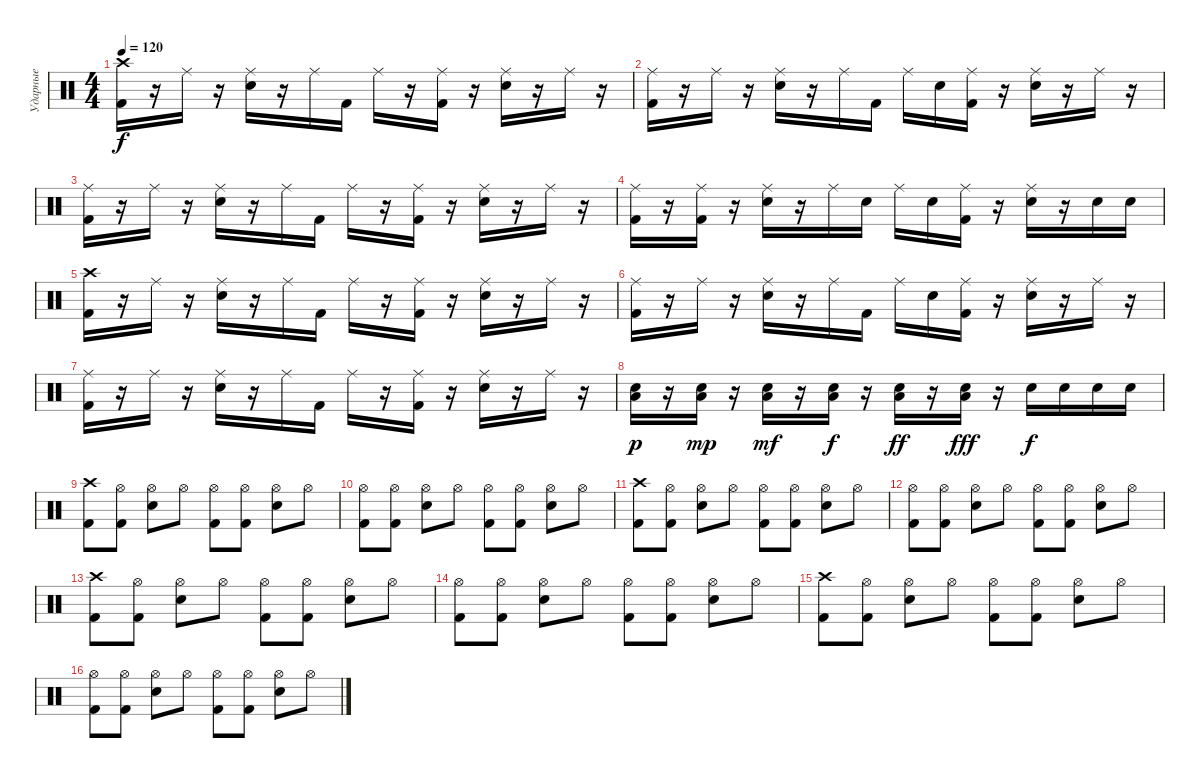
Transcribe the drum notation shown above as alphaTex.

\track ("Ударные" "Ударные") {instrument percussion}
\staff {score}
\articulation defaults
\ts (4 4)
\tempo 120
\clef neutral
\ks c
("Crash high (hit)" "Kick (hit) 2").16{dy f} r.16 "Ride (middle)".16 r.16 ("Ride (middle)" "Electric Snare (hit)").16 r.16 "Ride (middle)".16 "Kick (hit) 2".16 "Ride (middle)".16 r.16 ("Ride (middle)" "Kick (hit) 2").16 r.16 ("Ride (middle)" "Electric Snare (hit)").16 r.16 "Ride (middle)".16 r.16 |
("Ride (middle)" "Kick (hit) 2").16 r.16 "Ride (middle)".16 r.16 ("Ride (middle)" "Electric Snare (hit)").16 r.16 "Ride (middle)".16 "Kick (hit) 2".16 "Ride (middle)".16 "Electric Snare (hit)".16 ("Ride (middle)" "Kick (hit) 2").16 r.16 ("Ride (middle)" "Electric Snare (hit)").16 r.16 "Ride (middle)".16 r.16 |
("Ride (middle)" "Kick (hit) 2").16 r.16 "Ride (middle)".16 r.16 ("Ride (middle)" "Electric Snare (hit)").16 r.16 "Ride (middle)".16 "Kick (hit) 2".16 "Ride (middle)".16 r.16 ("Ride (middle)" "Kick (hit) 2").16 r.16 ("Ride (middle)" "Electric Snare (hit)").16 r.16 "Ride (middle)".16 r.16 |
("Ride (middle)" "Kick (hit) 2").16 r.16 ("Ride (middle)" "Kick (hit) 2").16 r.16 ("Ride (middle)" "Electric Snare (hit)").16 r.16 "Ride (middle)".16 "Electric Snare (hit)".16 "Ride (middle)".16 "Electric Snare (hit)".16 ("Ride (middle)" "Kick (hit) 2").16 r.16 ("Ride (middle)" "Electric Snare (hit)").16 r.16 "Electric Snare (hit)".16 "Electric Snare (hit)".16 |
("Crash high (hit)" "Kick (hit) 2").16 r.16 "Ride (middle)".16 r.16 ("Ride (middle)" "Electric Snare (hit)").16 r.16 "Ride (middle)".16 "Kick (hit) 2".16 "Ride (middle)".16 r.16 ("Ride (middle)" "Kick (hit) 2").16 r.16 ("Ride (middle)" "Electric Snare (hit)").16 r.16 "Ride (middle)".16 r.16 |
("Ride (middle)" "Kick (hit) 2").16 r.16 "Ride (middle)".16 r.16 ("Ride (middle)" "Electric Snare (hit)").16 r.16 "Ride (middle)".16 "Kick (hit) 2".16 "Ride (middle)".16 "Electric Snare (hit)".16 ("Ride (middle)" "Kick (hit) 2").16 r.16 ("Ride (middle)" "Electric Snare (hit)").16 r.16 "Ride (middle)".16 r.16 |
("Ride (middle)" "Kick (hit) 2").16 r.16 "Ride (middle)".16 r.16 ("Ride (middle)" "Electric Snare (hit)").16 r.16 "Ride (middle)".16 "Kick (hit) 2".16 "Ride (middle)".16 r.16 ("Ride (middle)" "Kick (hit) 2").16 r.16 ("Ride (middle)" "Electric Snare (hit)").16 r.16 "Ride (middle)".16 r.16 |
("Low Floor Tom (hit)" "Electric Snare (hit)").16{dy p} r.16 ("Low Floor Tom (hit)" "Electric Snare (hit)").16{dy mp} r.16 ("Low Floor Tom (hit)" "Electric Snare (hit)").16{dy mf} r.16 ("Low Floor Tom (hit)" "Electric Snare (hit)").16{dy f} r.16 ("Low Floor Tom (hit)" "Electric Snare (hit)").16{dy ff} r.16 ("Low Floor Tom (hit)" "Electric Snare (hit)").16{dy fff} r.16 "Electric Snare (hit)".16{dy f} "Electric Snare (hit)".16 "Electric Snare (hit)".16 "Electric Snare (hit)".16 |
("Crash high (hit)" "Kick (hit) 2").8 ("Hi-Hat (open)" "Kick (hit) 2").8 ("Hi-Hat (open)" "Electric Snare (hit)").8 "Hi-Hat (open)".8 ("Hi-Hat (open)" "Kick (hit) 2").8 ("Hi-Hat (open)" "Kick (hit) 2").8 ("Hi-Hat (open)" "Electric Snare (hit)").8 "Hi-Hat (open)".8 |
("Hi-Hat (open)" "Kick (hit) 2").8 ("Hi-Hat (open)" "Kick (hit) 2").8 ("Hi-Hat (open)" "Electric Snare (hit)").8 "Hi-Hat (open)".8 ("Hi-Hat (open)" "Kick (hit) 2").8 ("Hi-Hat (open)" "Kick (hit) 2").8 ("Hi-Hat (open)" "Electric Snare (hit)").8 "Hi-Hat (open)".8 |
("Crash high (hit)" "Kick (hit) 2").8 ("Hi-Hat (open)" "Kick (hit) 2").8 ("Hi-Hat (open)" "Electric Snare (hit)").8 "Hi-Hat (open)".8 ("Hi-Hat (open)" "Kick (hit) 2").8 ("Hi-Hat (open)" "Kick (hit) 2").8 ("Hi-Hat (open)" "Electric Snare (hit)").8 "Hi-Hat (open)".8 |
("Hi-Hat (open)" "Kick (hit) 2").8 ("Hi-Hat (open)" "Kick (hit) 2").8 ("Hi-Hat (open)" "Electric Snare (hit)").8 "Hi-Hat (open)".8 ("Hi-Hat (open)" "Kick (hit) 2").8 ("Hi-Hat (open)" "Kick (hit) 2").8 ("Hi-Hat (open)" "Electric Snare (hit)").8 "Hi-Hat (open)".8 |
("Crash high (hit)" "Kick (hit) 2").8 ("Hi-Hat (open)" "Kick (hit) 2").8 ("Hi-Hat (open)" "Electric Snare (hit)").8 "Hi-Hat (open)".8 ("Hi-Hat (open)" "Kick (hit) 2").8 ("Hi-Hat (open)" "Kick (hit) 2").8 ("Hi-Hat (open)" "Electric Snare (hit)").8 "Hi-Hat (open)".8 |
("Hi-Hat (open)" "Kick (hit) 2").8 ("Hi-Hat (open)" "Kick (hit) 2").8 ("Hi-Hat (open)" "Electric Snare (hit)").8 "Hi-Hat (open)".8 ("Hi-Hat (open)" "Kick (hit) 2").8 ("Hi-Hat (open)" "Kick (hit) 2").8 ("Hi-Hat (open)" "Electric Snare (hit)").8 "Hi-Hat (open)".8 |
("Crash high (hit)" "Kick (hit) 2").8 ("Hi-Hat (open)" "Kick (hit) 2").8 ("Hi-Hat (open)" "Electric Snare (hit)").8 "Hi-Hat (open)".8 ("Hi-Hat (open)" "Kick (hit) 2").8 ("Hi-Hat (open)" "Kick (hit) 2").8 ("Hi-Hat (open)" "Electric Snare (hit)").8 "Hi-Hat (open)".8 |
("Hi-Hat (open)" "Kick (hit) 2").8 ("Hi-Hat (open)" "Kick (hit) 2").8 ("Hi-Hat (open)" "Electric Snare (hit)").8 "Hi-Hat (open)".8 ("Hi-Hat (open)" "Kick (hit) 2").8 ("Hi-Hat (open)" "Kick (hit) 2").8 ("Hi-Hat (open)" "Electric Snare (hit)").8 "Hi-Hat (open)".8
